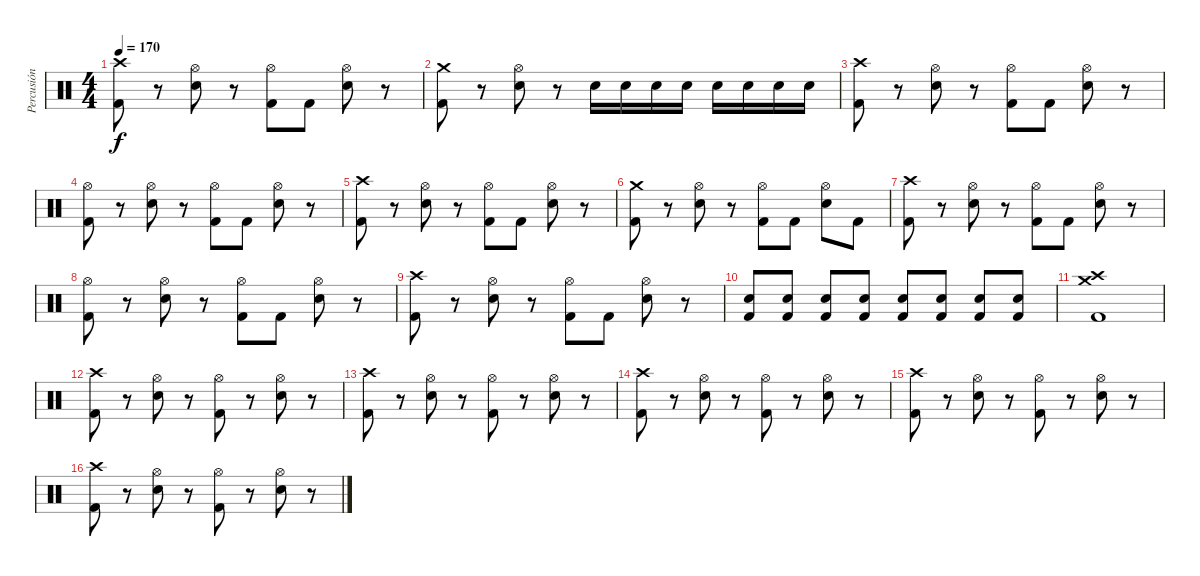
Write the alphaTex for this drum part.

\track ("Percusión" "Percusión") {instrument percussion}
\staff {score}
\articulation defaults
\ts (4 4)
\tempo 170
\clef neutral
\ks c
("Crash high (hit)" "Kick (hit) 2").8{dy f} r.8 ("Hi-Hat (open)" "Electric Snare (hit)").8 r.8 ("Hi-Hat (open)" "Kick (hit) 2").8 "Kick (hit) 2".8 ("Hi-Hat (open)" "Electric Snare (hit)").8 r.8 |
("Crash medium (hit)" "Kick (hit) 2").8 r.8 ("Hi-Hat (open)" "Electric Snare (hit)").8 r.8 "Electric Snare (hit)".16 "Electric Snare (hit)".16 "Electric Snare (hit)".16 "Electric Snare (hit)".16 "Electric Snare (hit)".16 "Electric Snare (hit)".16 "Electric Snare (hit)".16 "Electric Snare (hit)".16 |
("Crash high (hit)" "Kick (hit) 2").8 r.8 ("Hi-Hat (open)" "Electric Snare (hit)").8 r.8 ("Hi-Hat (open)" "Kick (hit) 2").8 "Kick (hit) 2".8 ("Hi-Hat (open)" "Electric Snare (hit)").8 r.8 |
("Hi-Hat (open)" "Kick (hit) 2").8 r.8 ("Hi-Hat (open)" "Electric Snare (hit)").8 r.8 ("Hi-Hat (open)" "Kick (hit) 2").8 "Kick (hit) 2".8 ("Hi-Hat (open)" "Electric Snare (hit)").8 r.8 |
("Crash high (hit)" "Kick (hit) 2").8 r.8 ("Hi-Hat (open)" "Electric Snare (hit)").8 r.8 ("Hi-Hat (open)" "Kick (hit) 2").8 "Kick (hit) 2".8 ("Hi-Hat (open)" "Electric Snare (hit)").8 r.8 |
("Crash medium (hit)" "Kick (hit) 2").8 r.8 ("Hi-Hat (open)" "Electric Snare (hit)").8 r.8 ("Hi-Hat (open)" "Kick (hit) 2").8 "Kick (hit) 2".8 ("Hi-Hat (open)" "Electric Snare (hit)").8 "Kick (hit) 2".8 |
("Crash high (hit)" "Kick (hit) 2").8 r.8 ("Hi-Hat (open)" "Electric Snare (hit)").8 r.8 ("Hi-Hat (open)" "Kick (hit) 2").8 "Kick (hit) 2".8 ("Hi-Hat (open)" "Electric Snare (hit)").8 r.8 |
("Hi-Hat (open)" "Kick (hit) 2").8 r.8 ("Hi-Hat (open)" "Electric Snare (hit)").8 r.8 ("Hi-Hat (open)" "Kick (hit) 2").8 "Kick (hit) 2".8 ("Hi-Hat (open)" "Electric Snare (hit)").8 r.8 |
("Crash high (hit)" "Kick (hit) 2").8 r.8 ("Hi-Hat (open)" "Electric Snare (hit)").8 r.8 ("Hi-Hat (open)" "Kick (hit) 2").8 "Kick (hit) 2".8 ("Hi-Hat (open)" "Electric Snare (hit)").8 r.8 |
("Kick (hit) 2" "Electric Snare (hit)").8 ("Kick (hit) 2" "Electric Snare (hit)").8 ("Kick (hit) 2" "Electric Snare (hit)").8 ("Kick (hit) 2" "Electric Snare (hit)").8 ("Kick (hit) 2" "Electric Snare (hit)").8 ("Kick (hit) 2" "Electric Snare (hit)").8 ("Kick (hit) 2" "Electric Snare (hit)").8 ("Kick (hit) 2" "Electric Snare (hit)").8 |
("Crash medium (hit)" "Crash high (hit)" "Kick (hit) 2").1 |
("Crash high (hit)" "Kick (hit) 2").8 r.8 ("Hi-Hat (open)" "Electric Snare (hit)").8 r.8 ("Hi-Hat (open)" "Kick (hit) 2").8 r.8 ("Hi-Hat (open)" "Electric Snare (hit)").8 r.8 |
("Crash high (hit)" "Kick (hit) 2").8 r.8 ("Hi-Hat (open)" "Electric Snare (hit)").8 r.8 ("Hi-Hat (open)" "Kick (hit) 2").8 r.8 ("Hi-Hat (open)" "Electric Snare (hit)").8 r.8 |
("Crash high (hit)" "Kick (hit) 2").8 r.8 ("Hi-Hat (open)" "Electric Snare (hit)").8 r.8 ("Hi-Hat (open)" "Kick (hit) 2").8 r.8 ("Hi-Hat (open)" "Electric Snare (hit)").8 r.8 |
("Crash high (hit)" "Kick (hit) 2").8 r.8 ("Hi-Hat (open)" "Electric Snare (hit)").8 r.8 ("Hi-Hat (open)" "Kick (hit) 2").8 r.8 ("Hi-Hat (open)" "Electric Snare (hit)").8 r.8 |
("Crash high (hit)" "Kick (hit) 2").8 r.8 ("Hi-Hat (open)" "Electric Snare (hit)").8 r.8 ("Hi-Hat (open)" "Kick (hit) 2").8 r.8 ("Hi-Hat (open)" "Electric Snare (hit)").8 r.8
